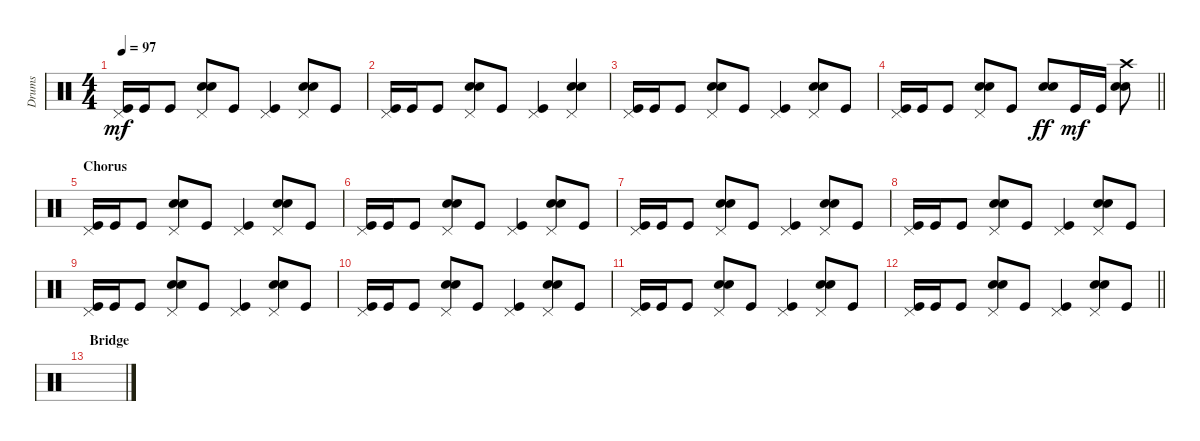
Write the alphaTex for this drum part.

\track ("Drums" "Drums") {instrument percussion}
\staff {score}
\articulation defaults
\ts (4 4)
\tempo 97
\clef neutral
\ks c
("Pedal Hi-Hat (hit)" "Kick (hit)").16{dy mf} "Kick (hit)".16 "Kick (hit)".8 ("Pedal Hi-Hat (hit)" "Electric Snare (hit)" "Snare (hit) 2").8 "Kick (hit)".8 ("Pedal Hi-Hat (hit)" "Kick (hit)").4 ("Pedal Hi-Hat (hit)" "Electric Snare (hit)" "Snare (hit) 2").8 "Kick (hit)".8 |
("Pedal Hi-Hat (hit)" "Kick (hit)").16 "Kick (hit)".16 "Kick (hit)".8 ("Pedal Hi-Hat (hit)" "Electric Snare (hit)" "Snare (hit) 2").8 "Kick (hit)".8 ("Pedal Hi-Hat (hit)" "Kick (hit)").4 ("Pedal Hi-Hat (hit)" "Electric Snare (hit)" "Snare (hit) 2").4 |
("Pedal Hi-Hat (hit)" "Kick (hit)").16 "Kick (hit)".16 "Kick (hit)".8 ("Pedal Hi-Hat (hit)" "Electric Snare (hit)" "Snare (hit) 2").8 "Kick (hit)".8 ("Pedal Hi-Hat (hit)" "Kick (hit)").4 ("Pedal Hi-Hat (hit)" "Electric Snare (hit)" "Snare (hit) 2").8 "Kick (hit)".8 |
\barLineRight lightlight
("Pedal Hi-Hat (hit)" "Kick (hit)").16 "Kick (hit)".16 "Kick (hit)".8 ("Pedal Hi-Hat (hit)" "Electric Snare (hit)" "Snare (hit) 2").8 "Kick (hit)".8 ("Electric Snare (hit)" "Snare (hit) 2").8{dy ff} "Kick (hit)".16{dy mf} "Kick (hit)".16 ("Crash high (hit)" "Electric Snare (hit)" "Snare (hit) 2").8 |
\section ("" "Chorus")
("Pedal Hi-Hat (hit)" "Kick (hit)").16 "Kick (hit)".16 "Kick (hit)".8 ("Pedal Hi-Hat (hit)" "Electric Snare (hit)" "Snare (hit) 2").8 "Kick (hit)".8 ("Pedal Hi-Hat (hit)" "Kick (hit)").4 ("Pedal Hi-Hat (hit)" "Electric Snare (hit)" "Snare (hit) 2").8 "Kick (hit)".8 |
("Pedal Hi-Hat (hit)" "Kick (hit)").16 "Kick (hit)".16 "Kick (hit)".8 ("Pedal Hi-Hat (hit)" "Electric Snare (hit)" "Snare (hit) 2").8 "Kick (hit)".8 ("Pedal Hi-Hat (hit)" "Kick (hit)").4 ("Pedal Hi-Hat (hit)" "Electric Snare (hit)" "Snare (hit) 2").8 "Kick (hit)".8 |
("Pedal Hi-Hat (hit)" "Kick (hit)").16 "Kick (hit)".16 "Kick (hit)".8 ("Pedal Hi-Hat (hit)" "Electric Snare (hit)" "Snare (hit) 2").8 "Kick (hit)".8 ("Pedal Hi-Hat (hit)" "Kick (hit)").4 ("Pedal Hi-Hat (hit)" "Electric Snare (hit)" "Snare (hit) 2").8 "Kick (hit)".8 |
("Pedal Hi-Hat (hit)" "Kick (hit)").16 "Kick (hit)".16 "Kick (hit)".8 ("Pedal Hi-Hat (hit)" "Electric Snare (hit)" "Snare (hit) 2").8 "Kick (hit)".8 ("Pedal Hi-Hat (hit)" "Kick (hit)").4 ("Pedal Hi-Hat (hit)" "Electric Snare (hit)" "Snare (hit) 2").8 "Kick (hit)".8 |
("Pedal Hi-Hat (hit)" "Kick (hit)").16 "Kick (hit)".16 "Kick (hit)".8 ("Pedal Hi-Hat (hit)" "Electric Snare (hit)" "Snare (hit) 2").8 "Kick (hit)".8 ("Pedal Hi-Hat (hit)" "Kick (hit)").4 ("Pedal Hi-Hat (hit)" "Electric Snare (hit)" "Snare (hit) 2").8 "Kick (hit)".8 |
("Pedal Hi-Hat (hit)" "Kick (hit)").16 "Kick (hit)".16 "Kick (hit)".8 ("Pedal Hi-Hat (hit)" "Electric Snare (hit)" "Snare (hit) 2").8 "Kick (hit)".8 ("Pedal Hi-Hat (hit)" "Kick (hit)").4 ("Pedal Hi-Hat (hit)" "Electric Snare (hit)" "Snare (hit) 2").8 "Kick (hit)".8 |
("Pedal Hi-Hat (hit)" "Kick (hit)").16 "Kick (hit)".16 "Kick (hit)".8 ("Pedal Hi-Hat (hit)" "Electric Snare (hit)" "Snare (hit) 2").8 "Kick (hit)".8 ("Pedal Hi-Hat (hit)" "Kick (hit)").4 ("Pedal Hi-Hat (hit)" "Electric Snare (hit)" "Snare (hit) 2").8 "Kick (hit)".8 |
\barLineRight lightlight
("Pedal Hi-Hat (hit)" "Kick (hit)").16 "Kick (hit)".16 "Kick (hit)".8 ("Pedal Hi-Hat (hit)" "Electric Snare (hit)" "Snare (hit) 2").8 "Kick (hit)".8 ("Pedal Hi-Hat (hit)" "Kick (hit)").4 ("Pedal Hi-Hat (hit)" "Electric Snare (hit)" "Snare (hit) 2").8 "Kick (hit)".8 |
\section ("" "Bridge")
